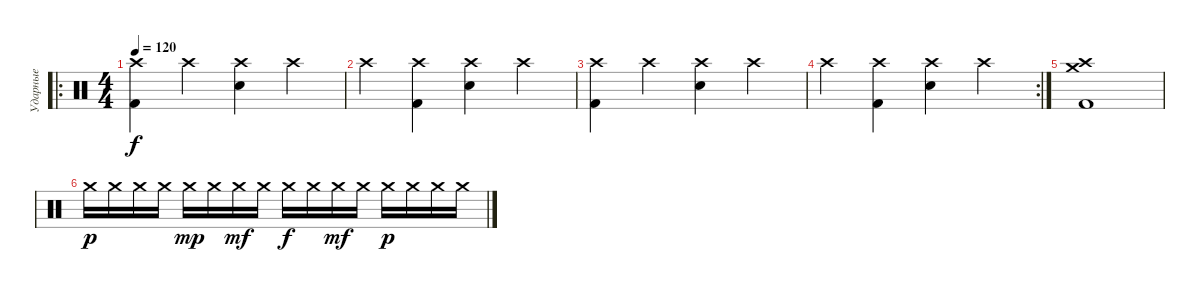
\track ("Ударные" "Ударные") {instrument percussion}
\staff {score}
\articulation defaults
\ro
\ts (4 4)
\tempo 120
\clef neutral
\ks c
("Crash high (hit)" "Kick (hit) 2").4{dy f} "Crash high (hit)".4 ("Crash high (hit)" "Electric Snare (hit)").4 "Crash high (hit)".4 |
"Crash high (hit)".4 ("Crash high (hit)" "Kick (hit) 2").4 ("Crash high (hit)" "Electric Snare (hit)").4 "Crash high (hit)".4 |
("Crash high (hit)" "Kick (hit) 2").4 "Crash high (hit)".4 ("Crash high (hit)" "Electric Snare (hit)").4 "Crash high (hit)".4 |
\rc 2 "Crash high (hit)".4
("Crash high (hit)" "Kick (hit) 2").4 ("Crash high (hit)" "Electric Snare (hit)").4 "Crash high (hit)".4 |
("Crash medium (hit)" "Crash high (hit)" "Kick (hit) 2").1 |
"Crash medium (hit)".16{dy p} "Crash medium (hit)".16 "Crash medium (hit)".16 "Crash medium (hit)".16 "Crash medium (hit)".16{dy mp} "Crash medium (hit)".16 "Crash medium (hit)".16{dy mf} "Crash medium (hit)".16 "Crash medium (hit)".16{dy f} "Crash medium (hit)".16 "Crash medium (hit)".16{dy mf} "Crash medium (hit)".16 "Crash medium (hit)".16{dy p} "Crash medium (hit)".16 "Crash medium (hit)".16 "Crash medium (hit)".16
